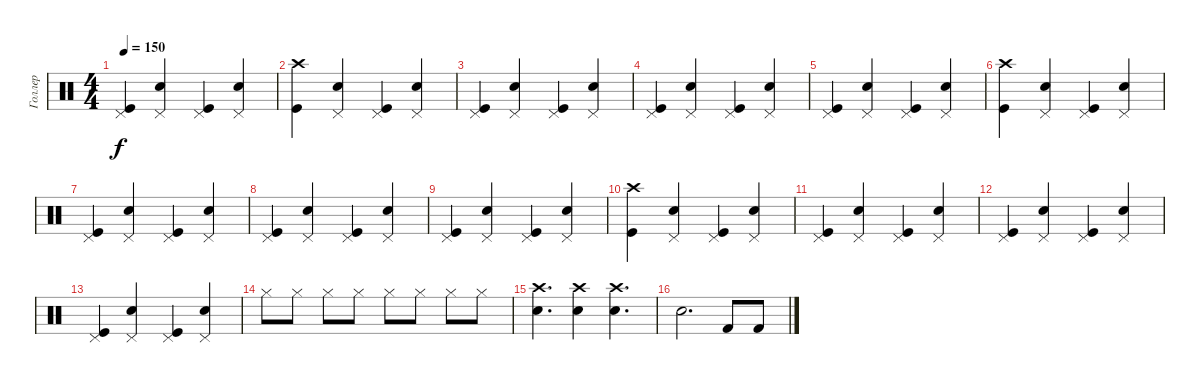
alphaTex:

\track ("Голлер" "Голлер") {instrument percussion}
\staff {score}
\articulation defaults
\ts (4 4)
\tempo 150
\clef neutral
\ks c
("Pedal Hi-Hat (hit)" "Kick (hit)").4{dy f} ("Pedal Hi-Hat (hit)" "Snare (hit) 2").4 ("Pedal Hi-Hat (hit)" "Kick (hit)").4 ("Pedal Hi-Hat (hit)" "Snare (hit) 2").4 |
("Crash high (hit)" "Kick (hit)").4 ("Pedal Hi-Hat (hit)" "Snare (hit) 2").4 ("Pedal Hi-Hat (hit)" "Kick (hit)").4 ("Pedal Hi-Hat (hit)" "Snare (hit) 2").4 |
("Pedal Hi-Hat (hit)" "Kick (hit)").4 ("Pedal Hi-Hat (hit)" "Snare (hit) 2").4 ("Pedal Hi-Hat (hit)" "Kick (hit)").4 ("Pedal Hi-Hat (hit)" "Snare (hit) 2").4 |
("Pedal Hi-Hat (hit)" "Kick (hit)").4 ("Pedal Hi-Hat (hit)" "Snare (hit) 2").4 ("Pedal Hi-Hat (hit)" "Kick (hit)").4 ("Pedal Hi-Hat (hit)" "Snare (hit) 2").4 |
("Pedal Hi-Hat (hit)" "Kick (hit)").4 ("Pedal Hi-Hat (hit)" "Snare (hit) 2").4 ("Pedal Hi-Hat (hit)" "Kick (hit)").4 ("Pedal Hi-Hat (hit)" "Snare (hit) 2").4 |
("Crash high (hit)" "Kick (hit)").4 ("Pedal Hi-Hat (hit)" "Snare (hit) 2").4 ("Pedal Hi-Hat (hit)" "Kick (hit)").4 ("Pedal Hi-Hat (hit)" "Snare (hit) 2").4 |
("Pedal Hi-Hat (hit)" "Kick (hit)").4 ("Pedal Hi-Hat (hit)" "Snare (hit) 2").4 ("Pedal Hi-Hat (hit)" "Kick (hit)").4 ("Pedal Hi-Hat (hit)" "Snare (hit) 2").4 |
("Pedal Hi-Hat (hit)" "Kick (hit)").4 ("Pedal Hi-Hat (hit)" "Snare (hit) 2").4 ("Pedal Hi-Hat (hit)" "Kick (hit)").4 ("Pedal Hi-Hat (hit)" "Snare (hit) 2").4 |
("Pedal Hi-Hat (hit)" "Kick (hit)").4 ("Pedal Hi-Hat (hit)" "Snare (hit) 2").4 ("Pedal Hi-Hat (hit)" "Kick (hit)").4 ("Pedal Hi-Hat (hit)" "Snare (hit) 2").4 |
("Crash high (hit)" "Kick (hit)").4 ("Pedal Hi-Hat (hit)" "Snare (hit) 2").4 ("Pedal Hi-Hat (hit)" "Kick (hit)").4 ("Pedal Hi-Hat (hit)" "Snare (hit) 2").4 |
("Pedal Hi-Hat (hit)" "Kick (hit)").4 ("Pedal Hi-Hat (hit)" "Snare (hit) 2").4 ("Pedal Hi-Hat (hit)" "Kick (hit)").4 ("Pedal Hi-Hat (hit)" "Snare (hit) 2").4 |
("Pedal Hi-Hat (hit)" "Kick (hit)").4 ("Pedal Hi-Hat (hit)" "Snare (hit) 2").4 ("Pedal Hi-Hat (hit)" "Kick (hit)").4 ("Pedal Hi-Hat (hit)" "Snare (hit) 2").4 |
("Pedal Hi-Hat (hit)" "Kick (hit)").4 ("Pedal Hi-Hat (hit)" "Snare (hit) 2").4 ("Pedal Hi-Hat (hit)" "Kick (hit)").4 ("Pedal Hi-Hat (hit)" "Snare (hit) 2").4 |
"Hi-Hat (closed)".8 "Hi-Hat (closed)".8 "Hi-Hat (closed)".8 "Hi-Hat (closed)".8 "Hi-Hat (closed)".8 "Hi-Hat (closed)".8 "Hi-Hat (closed)".8 "Hi-Hat (closed)".8 |
("Snare (hit) 2" "Crash high (hit)").4{d} ("Snare (hit) 2" "Crash high (hit)").4 ("Snare (hit) 2" "Crash high (hit)").4{d} |
"Hand Clap (hit)".2{d} "Kick (hit) 2".8 "Kick (hit) 2".8
